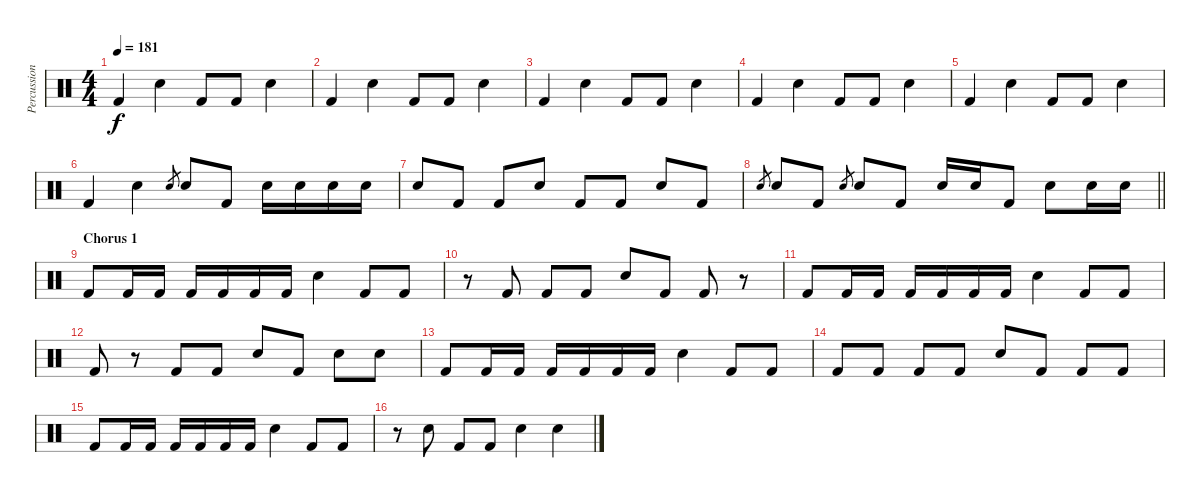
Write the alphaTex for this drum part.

\track ("Percussions" "Percussion") {instrument percussion}
\staff {score}
\articulation defaults
\ts (4 4)
\tempo 181
\clef neutral
\ks c "Kick (hit) 2".4{dy f} "Snare (hit) 2".4 "Kick (hit) 2".8 "Kick (hit) 2".8 "Snare (hit) 2".4
|
"Kick (hit) 2".4 "Snare (hit) 2".4 "Kick (hit) 2".8 "Kick (hit) 2".8 "Snare (hit) 2".4 |
"Kick (hit) 2".4 "Snare (hit) 2".4 "Kick (hit) 2".8 "Kick (hit) 2".8 "Snare (hit) 2".4 |
"Kick (hit) 2".4 "Snare (hit) 2".4 "Kick (hit) 2".8 "Kick (hit) 2".8 "Snare (hit) 2".4 |
"Kick (hit) 2".4 "Snare (hit) 2".4 "Kick (hit) 2".8 "Kick (hit) 2".8 "Snare (hit) 2".4 |
"Kick (hit) 2".4 "Snare (hit) 2".4 "Snare (hit) 2".8{gr} "Snare (hit) 2".8 "Kick (hit) 2".8 "Snare (hit) 2".16 "Snare (hit) 2".16 "Snare (hit) 2".16 "Snare (hit) 2".16 |
"Snare (hit) 2".8 "Kick (hit) 2".8 "Kick (hit) 2".8 "Snare (hit) 2".8 "Kick (hit) 2".8 "Kick (hit) 2".8 "Snare (hit) 2".8 "Kick (hit) 2".8 |
\barLineRight lightlight "Snare (hit) 2".8{gr} "Snare (hit) 2".8 "Kick (hit) 2".8 "Snare (hit) 2".8{gr} "Snare (hit) 2".8 "Kick (hit) 2".8 "Snare (hit) 2".16 "Snare (hit) 2".16 "Kick (hit) 2".8 "Snare (hit) 2".8 "Snare (hit) 2".16 "Snare (hit) 2".16
|
\section ("" "Chorus 1")
"Kick (hit) 2".8 "Kick (hit) 2".16 "Kick (hit) 2".16 "Kick (hit) 2".16 "Kick (hit) 2".16 "Kick (hit) 2".16 "Kick (hit) 2".16 "Snare (hit) 2".4 "Kick (hit) 2".8 "Kick (hit) 2".8 |
r.8 "Kick (hit) 2".8 "Kick (hit) 2".8 "Kick (hit) 2".8 "Snare (hit) 2".8 "Kick (hit) 2".8 "Kick (hit) 2".8 r.8 |
"Kick (hit) 2".8 "Kick (hit) 2".16 "Kick (hit) 2".16 "Kick (hit) 2".16 "Kick (hit) 2".16 "Kick (hit) 2".16 "Kick (hit) 2".16 "Snare (hit) 2".4 "Kick (hit) 2".8 "Kick (hit) 2".8 |
"Kick (hit) 2".8 r.8 "Kick (hit) 2".8 "Kick (hit) 2".8 "Snare (hit) 2".8 "Kick (hit) 2".8 "Snare (hit) 2".8 "Snare (hit) 2".8 |
"Kick (hit) 2".8 "Kick (hit) 2".16 "Kick (hit) 2".16 "Kick (hit) 2".16 "Kick (hit) 2".16 "Kick (hit) 2".16 "Kick (hit) 2".16 "Snare (hit) 2".4 "Kick (hit) 2".8 "Kick (hit) 2".8 |
"Kick (hit) 2".8 "Kick (hit) 2".8 "Kick (hit) 2".8 "Kick (hit) 2".8 "Snare (hit) 2".8 "Kick (hit) 2".8 "Kick (hit) 2".8 "Kick (hit) 2".8 |
"Kick (hit) 2".8 "Kick (hit) 2".16 "Kick (hit) 2".16 "Kick (hit) 2".16 "Kick (hit) 2".16 "Kick (hit) 2".16 "Kick (hit) 2".16 "Snare (hit) 2".4 "Kick (hit) 2".8 "Kick (hit) 2".8 |
r.8 "Snare (hit) 2".8 "Kick (hit) 2".8 "Kick (hit) 2".8 "Snare (hit) 2".4 "Snare (hit) 2".4
